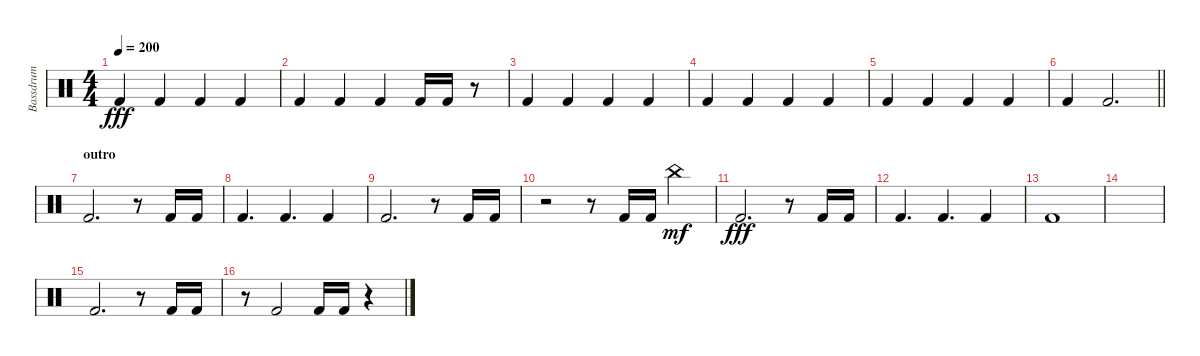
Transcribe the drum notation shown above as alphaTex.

\track ("Bassdrum" "Bassdrum") {instrument percussion}
\staff {score}
\articulation defaults
\ts (4 4)
\tempo 200
\clef neutral
\ks c "Kick (hit) 2".4{dy fff} "Kick (hit) 2".4 "Kick (hit) 2".4 "Kick (hit) 2".4
|
"Kick (hit) 2".4 "Kick (hit) 2".4 "Kick (hit) 2".4 "Kick (hit) 2".16 "Kick (hit) 2".16 r.8 |
"Kick (hit) 2".4 "Kick (hit) 2".4 "Kick (hit) 2".4 "Kick (hit) 2".4 |
"Kick (hit) 2".4 "Kick (hit) 2".4 "Kick (hit) 2".4 "Kick (hit) 2".4 |
"Kick (hit) 2".4 "Kick (hit) 2".4 "Kick (hit) 2".4 "Kick (hit) 2".4 |
\barLineRight lightlight "Kick (hit) 2".4 "Kick (hit) 2".2{d}
|
\section ("" "outro")
"Kick (hit) 2".2{d} r.8 "Kick (hit) 2".16 "Kick (hit) 2".16 |
"Kick (hit) 2".4{d} "Kick (hit) 2".4{d} "Kick (hit) 2".4 |
"Kick (hit) 2".2{d} r.8 "Kick (hit) 2".16 "Kick (hit) 2".16 |
r.2 r.8 "Kick (hit) 2".16 "Kick (hit) 2".16 "China (hit)".4{dy mf} |
"Kick (hit) 2".2{d dy fff} r.8 "Kick (hit) 2".16 "Kick (hit) 2".16 |
"Kick (hit) 2".4{d} "Kick (hit) 2".4{d} "Kick (hit) 2".4 |
"Kick (hit) 2".1 |
|
"Kick (hit) 2".2{d} r.8 "Kick (hit) 2".16 "Kick (hit) 2".16 |
r.8 "Kick (hit) 2".2 "Kick (hit) 2".16 "Kick (hit) 2".16 r.4
